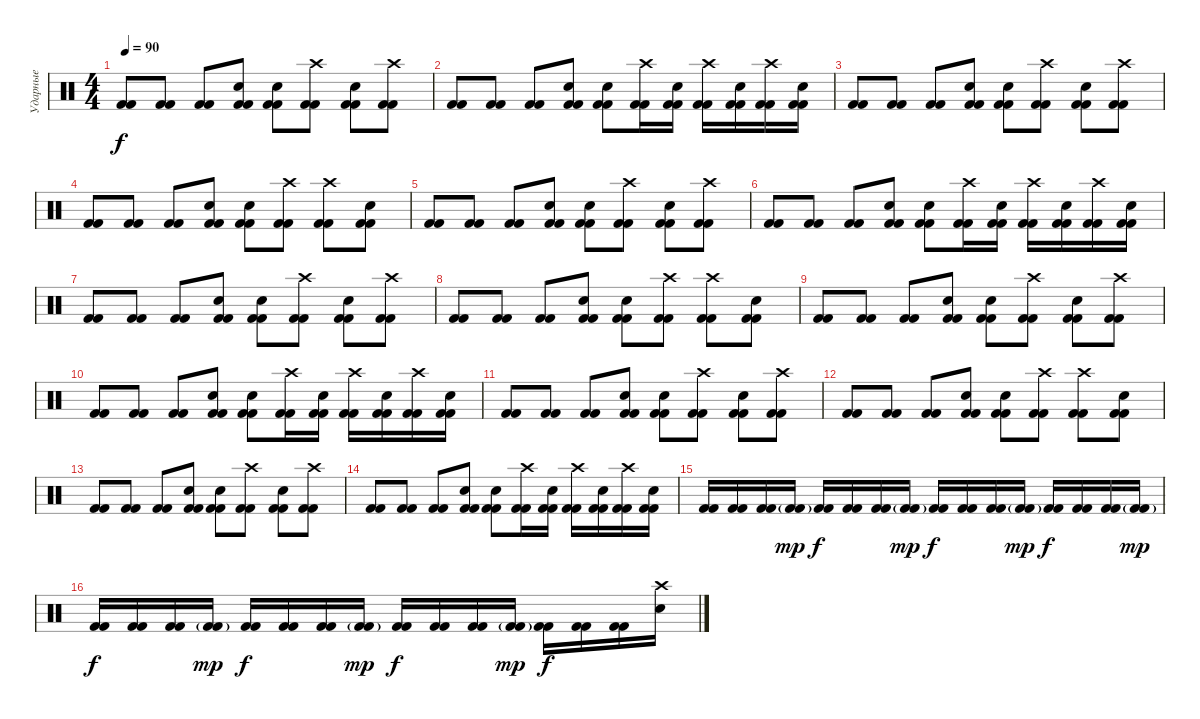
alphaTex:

\track ("Ударные" "Ударные") {instrument percussion}
\staff {score}
\articulation defaults
\ts (4 4)
\tempo 90
\clef neutral
\ks c
("Kick (hit) 2" "Kick (hit) 2").8{dy f} ("Kick (hit) 2" "Kick (hit) 2").8 ("Kick (hit) 2" "Kick (hit) 2").8 ("Electric Snare (hit)" "Kick (hit) 2" "Kick (hit) 2").8 ("Electric Snare (hit)" "Kick (hit) 2" "Kick (hit) 2").8 ("Crash high (hit)" "Kick (hit) 2" "Kick (hit) 2").8 ("Electric Snare (hit)" "Kick (hit) 2" "Kick (hit) 2").8 ("Crash high (hit)" "Kick (hit) 2" "Kick (hit) 2").8 |
("Kick (hit) 2" "Kick (hit) 2").8 ("Kick (hit) 2" "Kick (hit) 2").8 ("Kick (hit) 2" "Kick (hit) 2").8 ("Electric Snare (hit)" "Kick (hit) 2" "Kick (hit) 2").8 ("Electric Snare (hit)" "Kick (hit) 2" "Kick (hit) 2").8 ("Crash high (hit)" "Kick (hit) 2" "Kick (hit) 2").16 ("Electric Snare (hit)" "Kick (hit) 2" "Kick (hit) 2").16 ("Crash high (hit)" "Kick (hit) 2" "Kick (hit) 2").16 ("Electric Snare (hit)" "Kick (hit) 2" "Kick (hit) 2").16 ("Crash high (hit)" "Kick (hit) 2" "Kick (hit) 2").16 ("Electric Snare (hit)" "Kick (hit) 2" "Kick (hit) 2").16 |
("Kick (hit) 2" "Kick (hit) 2").8 ("Kick (hit) 2" "Kick (hit) 2").8 ("Kick (hit) 2" "Kick (hit) 2").8 ("Electric Snare (hit)" "Kick (hit) 2" "Kick (hit) 2").8 ("Electric Snare (hit)" "Kick (hit) 2" "Kick (hit) 2").8 ("Crash high (hit)" "Kick (hit) 2" "Kick (hit) 2").8 ("Electric Snare (hit)" "Kick (hit) 2" "Kick (hit) 2").8 ("Crash high (hit)" "Kick (hit) 2" "Kick (hit) 2").8 |
("Kick (hit) 2" "Kick (hit) 2").8 ("Kick (hit) 2" "Kick (hit) 2").8 ("Kick (hit) 2" "Kick (hit) 2").8 ("Electric Snare (hit)" "Kick (hit) 2" "Kick (hit) 2").8 ("Electric Snare (hit)" "Kick (hit) 2" "Kick (hit) 2").8 ("Crash high (hit)" "Kick (hit) 2" "Kick (hit) 2").8 ("Crash high (hit)" "Kick (hit) 2" "Kick (hit) 2").8 ("Electric Snare (hit)" "Kick (hit) 2" "Kick (hit) 2").8 |
("Kick (hit) 2" "Kick (hit) 2").8 ("Kick (hit) 2" "Kick (hit) 2").8 ("Kick (hit) 2" "Kick (hit) 2").8 ("Electric Snare (hit)" "Kick (hit) 2" "Kick (hit) 2").8 ("Electric Snare (hit)" "Kick (hit) 2" "Kick (hit) 2").8 ("Crash high (hit)" "Kick (hit) 2" "Kick (hit) 2").8 ("Electric Snare (hit)" "Kick (hit) 2" "Kick (hit) 2").8 ("Crash high (hit)" "Kick (hit) 2" "Kick (hit) 2").8 |
("Kick (hit) 2" "Kick (hit) 2").8 ("Kick (hit) 2" "Kick (hit) 2").8 ("Kick (hit) 2" "Kick (hit) 2").8 ("Electric Snare (hit)" "Kick (hit) 2" "Kick (hit) 2").8 ("Electric Snare (hit)" "Kick (hit) 2" "Kick (hit) 2").8 ("Crash high (hit)" "Kick (hit) 2" "Kick (hit) 2").16 ("Electric Snare (hit)" "Kick (hit) 2" "Kick (hit) 2").16 ("Crash high (hit)" "Kick (hit) 2" "Kick (hit) 2").16 ("Electric Snare (hit)" "Kick (hit) 2" "Kick (hit) 2").16 ("Crash high (hit)" "Kick (hit) 2" "Kick (hit) 2").16 ("Electric Snare (hit)" "Kick (hit) 2" "Kick (hit) 2").16 |
("Kick (hit) 2" "Kick (hit) 2").8 ("Kick (hit) 2" "Kick (hit) 2").8 ("Kick (hit) 2" "Kick (hit) 2").8 ("Electric Snare (hit)" "Kick (hit) 2" "Kick (hit) 2").8 ("Electric Snare (hit)" "Kick (hit) 2" "Kick (hit) 2").8 ("Crash high (hit)" "Kick (hit) 2" "Kick (hit) 2").8 ("Electric Snare (hit)" "Kick (hit) 2" "Kick (hit) 2").8 ("Crash high (hit)" "Kick (hit) 2" "Kick (hit) 2").8 |
("Kick (hit) 2" "Kick (hit) 2").8 ("Kick (hit) 2" "Kick (hit) 2").8 ("Kick (hit) 2" "Kick (hit) 2").8 ("Electric Snare (hit)" "Kick (hit) 2" "Kick (hit) 2").8 ("Electric Snare (hit)" "Kick (hit) 2" "Kick (hit) 2").8 ("Crash high (hit)" "Kick (hit) 2" "Kick (hit) 2").8 ("Crash high (hit)" "Kick (hit) 2" "Kick (hit) 2").8 ("Electric Snare (hit)" "Kick (hit) 2" "Kick (hit) 2").8 |
("Kick (hit) 2" "Kick (hit) 2").8 ("Kick (hit) 2" "Kick (hit) 2").8 ("Kick (hit) 2" "Kick (hit) 2").8 ("Electric Snare (hit)" "Kick (hit) 2" "Kick (hit) 2").8 ("Electric Snare (hit)" "Kick (hit) 2" "Kick (hit) 2").8 ("Crash high (hit)" "Kick (hit) 2" "Kick (hit) 2").8 ("Electric Snare (hit)" "Kick (hit) 2" "Kick (hit) 2").8 ("Crash high (hit)" "Kick (hit) 2" "Kick (hit) 2").8 |
("Kick (hit) 2" "Kick (hit) 2").8 ("Kick (hit) 2" "Kick (hit) 2").8 ("Kick (hit) 2" "Kick (hit) 2").8 ("Electric Snare (hit)" "Kick (hit) 2" "Kick (hit) 2").8 ("Electric Snare (hit)" "Kick (hit) 2" "Kick (hit) 2").8 ("Crash high (hit)" "Kick (hit) 2" "Kick (hit) 2").16 ("Electric Snare (hit)" "Kick (hit) 2" "Kick (hit) 2").16 ("Crash high (hit)" "Kick (hit) 2" "Kick (hit) 2").16 ("Electric Snare (hit)" "Kick (hit) 2" "Kick (hit) 2").16 ("Crash high (hit)" "Kick (hit) 2" "Kick (hit) 2").16 ("Electric Snare (hit)" "Kick (hit) 2" "Kick (hit) 2").16 |
("Kick (hit) 2" "Kick (hit) 2").8 ("Kick (hit) 2" "Kick (hit) 2").8 ("Kick (hit) 2" "Kick (hit) 2").8 ("Electric Snare (hit)" "Kick (hit) 2" "Kick (hit) 2").8 ("Electric Snare (hit)" "Kick (hit) 2" "Kick (hit) 2").8 ("Crash high (hit)" "Kick (hit) 2" "Kick (hit) 2").8 ("Electric Snare (hit)" "Kick (hit) 2" "Kick (hit) 2").8 ("Crash high (hit)" "Kick (hit) 2" "Kick (hit) 2").8 |
("Kick (hit) 2" "Kick (hit) 2").8 ("Kick (hit) 2" "Kick (hit) 2").8 ("Kick (hit) 2" "Kick (hit) 2").8 ("Electric Snare (hit)" "Kick (hit) 2" "Kick (hit) 2").8 ("Electric Snare (hit)" "Kick (hit) 2" "Kick (hit) 2").8 ("Crash high (hit)" "Kick (hit) 2" "Kick (hit) 2").8 ("Crash high (hit)" "Kick (hit) 2" "Kick (hit) 2").8 ("Electric Snare (hit)" "Kick (hit) 2" "Kick (hit) 2").8 |
("Kick (hit) 2" "Kick (hit) 2").8 ("Kick (hit) 2" "Kick (hit) 2").8 ("Kick (hit) 2" "Kick (hit) 2").8 ("Electric Snare (hit)" "Kick (hit) 2" "Kick (hit) 2").8 ("Electric Snare (hit)" "Kick (hit) 2" "Kick (hit) 2").8 ("Crash high (hit)" "Kick (hit) 2" "Kick (hit) 2").8 ("Electric Snare (hit)" "Kick (hit) 2" "Kick (hit) 2").8 ("Crash high (hit)" "Kick (hit) 2" "Kick (hit) 2").8 |
("Kick (hit) 2" "Kick (hit) 2").8 ("Kick (hit) 2" "Kick (hit) 2").8 ("Kick (hit) 2" "Kick (hit) 2").8 ("Electric Snare (hit)" "Kick (hit) 2" "Kick (hit) 2").8 ("Electric Snare (hit)" "Kick (hit) 2" "Kick (hit) 2").8 ("Crash high (hit)" "Kick (hit) 2" "Kick (hit) 2").16 ("Electric Snare (hit)" "Kick (hit) 2" "Kick (hit) 2").16 ("Crash high (hit)" "Kick (hit) 2" "Kick (hit) 2").16 ("Electric Snare (hit)" "Kick (hit) 2" "Kick (hit) 2").16 ("Crash high (hit)" "Kick (hit) 2" "Kick (hit) 2").16 ("Electric Snare (hit)" "Kick (hit) 2" "Kick (hit) 2").16 |
("Kick (hit) 2" "Kick (hit) 2").16 ("Kick (hit) 2" "Kick (hit) 2").16 ("Kick (hit) 2" "Kick (hit) 2").16 ("Kick (hit) 2"{g} "Kick (hit) 2"{g}).16{dy mp} ("Kick (hit) 2" "Kick (hit) 2").16{dy f} ("Kick (hit) 2" "Kick (hit) 2").16 ("Kick (hit) 2" "Kick (hit) 2").16 ("Kick (hit) 2"{g} "Kick (hit) 2"{g}).16{dy mp} ("Kick (hit) 2" "Kick (hit) 2").16{dy f} ("Kick (hit) 2" "Kick (hit) 2").16 ("Kick (hit) 2" "Kick (hit) 2").16 ("Kick (hit) 2"{g} "Kick (hit) 2"{g}).16{dy mp} ("Kick (hit) 2" "Kick (hit) 2").16{dy f} ("Kick (hit) 2" "Kick (hit) 2").16 ("Kick (hit) 2" "Kick (hit) 2").16 ("Kick (hit) 2"{g} "Kick (hit) 2"{g}).16{dy mp} |
("Kick (hit) 2" "Kick (hit) 2").16{dy f} ("Kick (hit) 2" "Kick (hit) 2").16 ("Kick (hit) 2" "Kick (hit) 2").16 ("Kick (hit) 2"{g} "Kick (hit) 2"{g}).16{dy mp} ("Kick (hit) 2" "Kick (hit) 2").16{dy f} ("Kick (hit) 2" "Kick (hit) 2").16 ("Kick (hit) 2" "Kick (hit) 2").16 ("Kick (hit) 2"{g} "Kick (hit) 2"{g}).16{dy mp} ("Kick (hit) 2" "Kick (hit) 2").16{dy f} ("Kick (hit) 2" "Kick (hit) 2").16 ("Kick (hit) 2" "Kick (hit) 2").16 ("Kick (hit) 2"{g} "Kick (hit) 2"{g}).16{dy mp} ("Kick (hit) 2" "Kick (hit) 2").16{dy f} ("Kick (hit) 2" "Kick (hit) 2").16 ("Kick (hit) 2" "Kick (hit) 2").16 ("Electric Snare (hit)" "Crash high (hit)").16
